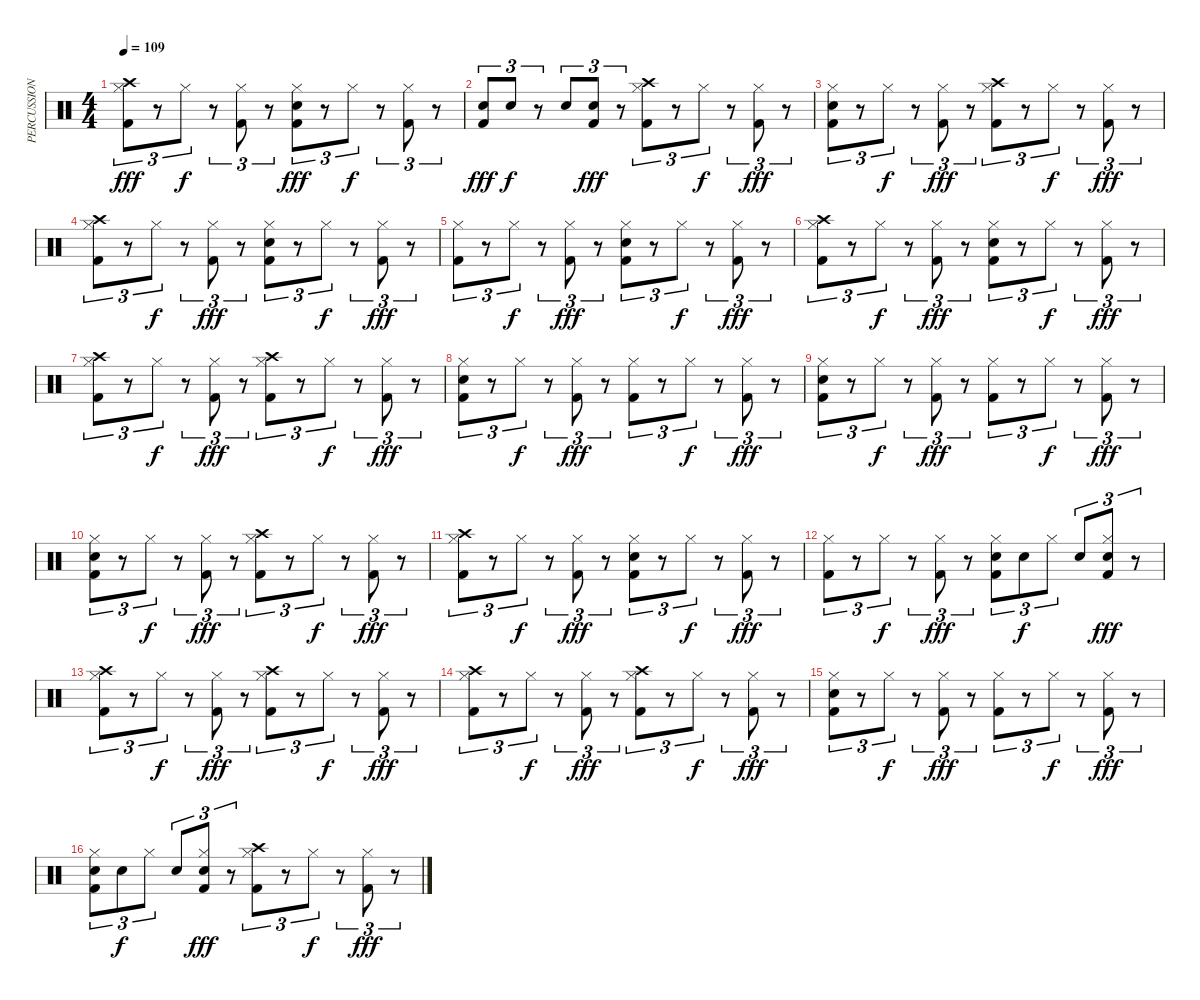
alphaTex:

\track ("PERCUSSION" "PERCUSSION") {instrument percussion}
\staff {score}
\articulation defaults
\ts (4 4)
\tempo 109
\clef neutral
\ks c
("Kick (hit) 2" "Hi-Hat (closed)" "Crash high (hit)").8{tu (3 2) dy fff} r.8{tu (3 2)} "Hi-Hat (closed)".8{tu (3 2) dy f} r.8{tu (3 2)} ("Kick (hit) 2" "Hi-Hat (closed)").8{tu (3 2)} r.8{tu (3 2)} ("Kick (hit) 2" "Hi-Hat (closed)" "Snare (hit) 2").8{tu (3 2) dy fff} r.8{tu (3 2)} "Hi-Hat (closed)".8{tu (3 2) dy f} r.8{tu (3 2)} ("Kick (hit) 2" "Hi-Hat (closed)").8{tu (3 2)} r.8{tu (3 2)} |
("Kick (hit) 2" "Snare (hit) 2").8{tu (3 2) dy fff} "Snare (hit) 2".8{tu (3 2) dy f} r.8{tu (3 2)} "Snare (hit) 2".8{tu (3 2)} ("Kick (hit) 2" "Snare (hit) 2").8{tu (3 2) dy fff} r.8{tu (3 2)} ("Kick (hit) 2" "Hi-Hat (closed)" "Crash high (hit)").8{tu (3 2)} r.8{tu (3 2)} "Hi-Hat (closed)".8{tu (3 2) dy f} r.8{tu (3 2)} ("Kick (hit) 2" "Hi-Hat (closed)").8{tu (3 2) dy fff} r.8{tu (3 2)} |
("Kick (hit) 2" "Hi-Hat (closed)" "Snare (hit) 2").8{tu (3 2)} r.8{tu (3 2)} "Hi-Hat (closed)".8{tu (3 2) dy f} r.8{tu (3 2)} ("Kick (hit) 2" "Hi-Hat (closed)").8{tu (3 2) dy fff} r.8{tu (3 2)} ("Kick (hit) 2" "Hi-Hat (closed)" "Crash high (hit)").8{tu (3 2)} r.8{tu (3 2)} "Hi-Hat (closed)".8{tu (3 2) dy f} r.8{tu (3 2)} ("Kick (hit) 2" "Hi-Hat (closed)").8{tu (3 2) dy fff} r.8{tu (3 2)} |
("Kick (hit) 2" "Hi-Hat (closed)" "Crash high (hit)").8{tu (3 2)} r.8{tu (3 2)} "Hi-Hat (closed)".8{tu (3 2) dy f} r.8{tu (3 2)} ("Kick (hit) 2" "Hi-Hat (closed)").8{tu (3 2) dy fff} r.8{tu (3 2)} ("Kick (hit) 2" "Hi-Hat (closed)" "Snare (hit) 2").8{tu (3 2)} r.8{tu (3 2)} "Hi-Hat (closed)".8{tu (3 2) dy f} r.8{tu (3 2)} ("Kick (hit) 2" "Hi-Hat (closed)").8{tu (3 2) dy fff} r.8{tu (3 2)} |
("Kick (hit) 2" "Hi-Hat (closed)").8{tu (3 2)} r.8{tu (3 2)} "Hi-Hat (closed)".8{tu (3 2) dy f} r.8{tu (3 2)} ("Kick (hit) 2" "Hi-Hat (closed)").8{tu (3 2) dy fff} r.8{tu (3 2)} ("Kick (hit) 2" "Hi-Hat (closed)" "Snare (hit) 2").8{tu (3 2)} r.8{tu (3 2)} "Hi-Hat (closed)".8{tu (3 2) dy f} r.8{tu (3 2)} ("Kick (hit) 2" "Hi-Hat (closed)").8{tu (3 2) dy fff} r.8{tu (3 2)} |
("Kick (hit) 2" "Hi-Hat (closed)" "Crash high (hit)").8{tu (3 2)} r.8{tu (3 2)} "Hi-Hat (closed)".8{tu (3 2) dy f} r.8{tu (3 2)} ("Kick (hit) 2" "Hi-Hat (closed)").8{tu (3 2) dy fff} r.8{tu (3 2)} ("Kick (hit) 2" "Hi-Hat (closed)" "Snare (hit) 2").8{tu (3 2)} r.8{tu (3 2)} "Hi-Hat (closed)".8{tu (3 2) dy f} r.8{tu (3 2)} ("Kick (hit) 2" "Hi-Hat (closed)").8{tu (3 2) dy fff} r.8{tu (3 2)} |
("Kick (hit) 2" "Hi-Hat (closed)" "Crash high (hit)").8{tu (3 2)} r.8{tu (3 2)} "Hi-Hat (closed)".8{tu (3 2) dy f} r.8{tu (3 2)} ("Kick (hit) 2" "Hi-Hat (closed)").8{tu (3 2) dy fff} r.8{tu (3 2)} ("Kick (hit) 2" "Hi-Hat (closed)" "Crash high (hit)").8{tu (3 2)} r.8{tu (3 2)} "Hi-Hat (closed)".8{tu (3 2) dy f} r.8{tu (3 2)} ("Kick (hit) 2" "Hi-Hat (closed)").8{tu (3 2) dy fff} r.8{tu (3 2)} |
("Kick (hit) 2" "Hi-Hat (closed)" "Snare (hit) 2").8{tu (3 2)} r.8{tu (3 2)} "Hi-Hat (closed)".8{tu (3 2) dy f} r.8{tu (3 2)} ("Kick (hit) 2" "Hi-Hat (closed)").8{tu (3 2) dy fff} r.8{tu (3 2)} ("Kick (hit) 2" "Hi-Hat (closed)").8{tu (3 2)} r.8{tu (3 2)} "Hi-Hat (closed)".8{tu (3 2) dy f} r.8{tu (3 2)} ("Kick (hit) 2" "Hi-Hat (closed)").8{tu (3 2) dy fff} r.8{tu (3 2)} |
("Kick (hit) 2" "Hi-Hat (closed)" "Snare (hit) 2").8{tu (3 2)} r.8{tu (3 2)} "Hi-Hat (closed)".8{tu (3 2) dy f} r.8{tu (3 2)} ("Kick (hit) 2" "Hi-Hat (closed)").8{tu (3 2) dy fff} r.8{tu (3 2)} ("Kick (hit) 2" "Hi-Hat (closed)").8{tu (3 2)} r.8{tu (3 2)} "Hi-Hat (closed)".8{tu (3 2) dy f} r.8{tu (3 2)} ("Kick (hit) 2" "Hi-Hat (closed)").8{tu (3 2) dy fff} r.8{tu (3 2)} |
("Kick (hit) 2" "Hi-Hat (closed)" "Snare (hit) 2").8{tu (3 2)} r.8{tu (3 2)} "Hi-Hat (closed)".8{tu (3 2) dy f} r.8{tu (3 2)} ("Kick (hit) 2" "Hi-Hat (closed)").8{tu (3 2) dy fff} r.8{tu (3 2)} ("Kick (hit) 2" "Hi-Hat (closed)" "Crash high (hit)").8{tu (3 2)} r.8{tu (3 2)} "Hi-Hat (closed)".8{tu (3 2) dy f} r.8{tu (3 2)} ("Kick (hit) 2" "Hi-Hat (closed)").8{tu (3 2) dy fff} r.8{tu (3 2)} |
("Kick (hit) 2" "Hi-Hat (closed)" "Crash high (hit)").8{tu (3 2)} r.8{tu (3 2)} "Hi-Hat (closed)".8{tu (3 2) dy f} r.8{tu (3 2)} ("Kick (hit) 2" "Hi-Hat (closed)").8{tu (3 2) dy fff} r.8{tu (3 2)} ("Kick (hit) 2" "Hi-Hat (closed)" "Snare (hit) 2").8{tu (3 2)} r.8{tu (3 2)} "Hi-Hat (closed)".8{tu (3 2) dy f} r.8{tu (3 2)} ("Kick (hit) 2" "Hi-Hat (closed)").8{tu (3 2) dy fff} r.8{tu (3 2)} |
("Kick (hit) 2" "Hi-Hat (closed)").8{tu (3 2)} r.8{tu (3 2)} "Hi-Hat (closed)".8{tu (3 2) dy f} r.8{tu (3 2)} ("Kick (hit) 2" "Hi-Hat (closed)").8{tu (3 2) dy fff} r.8{tu (3 2)} ("Kick (hit) 2" "Hi-Hat (closed)" "Snare (hit) 2").8{tu (3 2)} "Snare (hit) 2".8{tu (3 2) dy f} "Hi-Hat (closed)".8{tu (3 2)} "Snare (hit) 2".8{tu (3 2)} ("Kick (hit) 2" "Hi-Hat (closed)" "Snare (hit) 2").8{tu (3 2) dy fff} r.8{tu (3 2)} |
("Kick (hit) 2" "Hi-Hat (closed)" "Crash high (hit)").8{tu (3 2)} r.8{tu (3 2)} "Hi-Hat (closed)".8{tu (3 2) dy f} r.8{tu (3 2)} ("Kick (hit) 2" "Hi-Hat (closed)").8{tu (3 2) dy fff} r.8{tu (3 2)} ("Kick (hit) 2" "Hi-Hat (closed)" "Crash high (hit)").8{tu (3 2)} r.8{tu (3 2)} "Hi-Hat (closed)".8{tu (3 2) dy f} r.8{tu (3 2)} ("Kick (hit) 2" "Hi-Hat (closed)").8{tu (3 2) dy fff} r.8{tu (3 2)} |
("Kick (hit) 2" "Hi-Hat (closed)" "Crash high (hit)").8{tu (3 2)} r.8{tu (3 2)} "Hi-Hat (closed)".8{tu (3 2) dy f} r.8{tu (3 2)} ("Kick (hit) 2" "Hi-Hat (closed)").8{tu (3 2) dy fff} r.8{tu (3 2)} ("Kick (hit) 2" "Hi-Hat (closed)" "Crash high (hit)").8{tu (3 2)} r.8{tu (3 2)} "Hi-Hat (closed)".8{tu (3 2) dy f} r.8{tu (3 2)} ("Kick (hit) 2" "Hi-Hat (closed)").8{tu (3 2) dy fff} r.8{tu (3 2)} |
("Kick (hit) 2" "Hi-Hat (closed)" "Snare (hit) 2").8{tu (3 2)} r.8{tu (3 2)} "Hi-Hat (closed)".8{tu (3 2) dy f} r.8{tu (3 2)} ("Kick (hit) 2" "Hi-Hat (closed)").8{tu (3 2) dy fff} r.8{tu (3 2)} ("Kick (hit) 2" "Hi-Hat (closed)").8{tu (3 2)} r.8{tu (3 2)} "Hi-Hat (closed)".8{tu (3 2) dy f} r.8{tu (3 2)} ("Kick (hit) 2" "Hi-Hat (closed)").8{tu (3 2) dy fff} r.8{tu (3 2)} |
("Kick (hit) 2" "Hi-Hat (closed)" "Snare (hit) 2").8{tu (3 2)} "Snare (hit) 2".8{tu (3 2) dy f} "Hi-Hat (closed)".8{tu (3 2)} "Snare (hit) 2".8{tu (3 2)} ("Kick (hit) 2" "Hi-Hat (closed)" "Snare (hit) 2").8{tu (3 2) dy fff} r.8{tu (3 2)} ("Kick (hit) 2" "Hi-Hat (closed)" "Crash high (hit)").8{tu (3 2)} r.8{tu (3 2)} "Hi-Hat (closed)".8{tu (3 2) dy f} r.8{tu (3 2)} ("Kick (hit) 2" "Hi-Hat (closed)").8{tu (3 2) dy fff} r.8{tu (3 2)}
